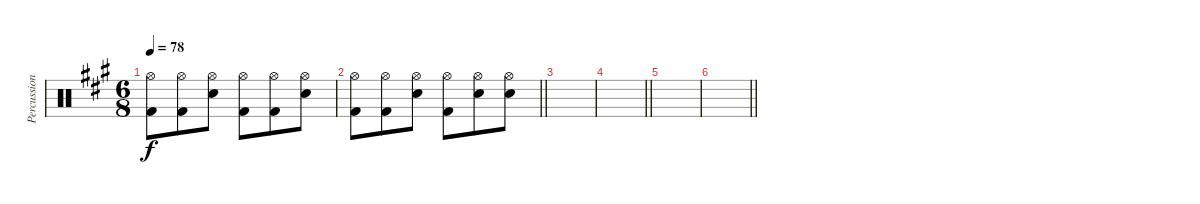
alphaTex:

\track ("Percussions" "Percussion") {instrument percussion}
\staff {score}
\articulation defaults
\ts (6 8)
\tempo 78
\clef neutral
\ks a
("Hi-Hat (open)" "Kick (hit) 2").8{dy f} ("Hi-Hat (open)" "Kick (hit) 2").8 ("Hi-Hat (open)" "Snare (hit) 2").8 ("Hi-Hat (open)" "Kick (hit) 2").8 ("Hi-Hat (open)" "Kick (hit) 2").8 ("Hi-Hat (open)" "Snare (hit) 2").8 |
\barLineRight lightlight
("Hi-Hat (open)" "Kick (hit) 2").8 ("Hi-Hat (open)" "Kick (hit) 2").8 ("Hi-Hat (open)" "Snare (hit) 2").8 ("Hi-Hat (open)" "Kick (hit) 2").8 ("Hi-Hat (open)" "Snare (hit) 2").8 ("Hi-Hat (open)" "Snare (hit) 2").8 |
|
\barLineRight lightlight
|
|
\barLineRight lightlight
